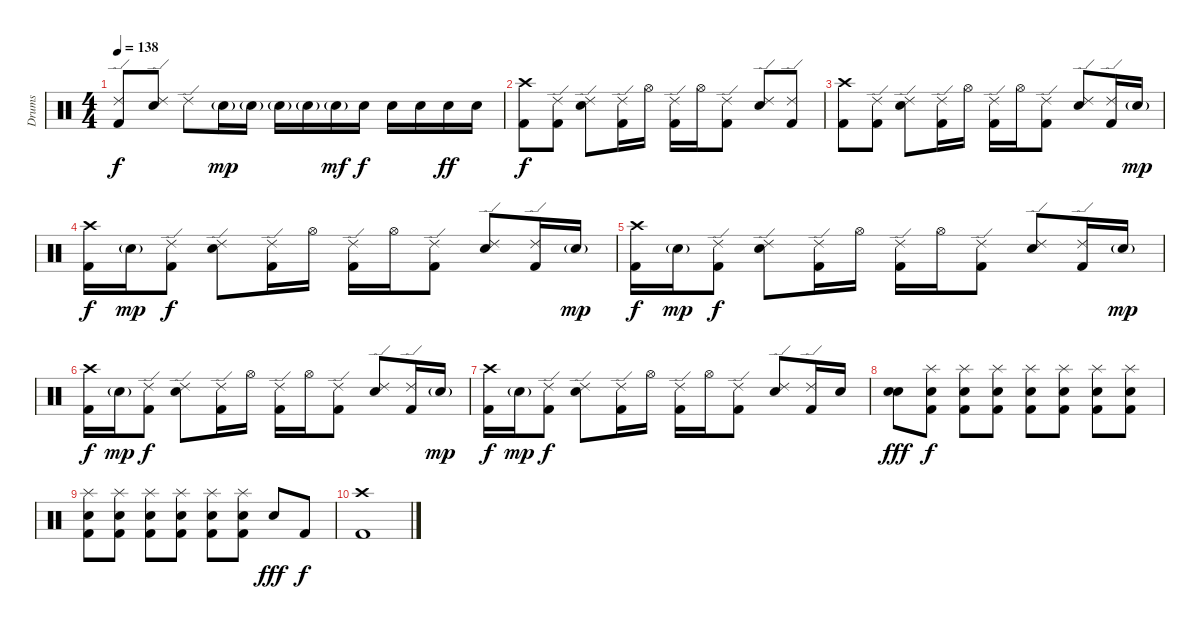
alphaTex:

\track ("Drums" "Drums") {instrument percussion}
\staff {score}
\articulation defaults
\ts (4 4)
\tempo 138
\clef neutral
\ks c
("Ride (edge) 2" "Kick (hit) 2").8{dy f} ("Ride (edge) 2" "Snare (hit) 2").8 "Ride (edge) 2".8 "Snare (hit) 2"{g}.16{dy mp} "Snare (hit) 2"{g}.16 "Snare (hit) 2"{g}.16 "Snare (hit) 2"{g}.16 "Snare (hit) 2"{g}.16{dy mf} "Snare (hit) 2".16{dy f} "Snare (hit) 2".16 "Snare (hit) 2".16 "Snare (hit) 2".16{dy ff} "Snare (hit) 2".16 |
("Crash high (hit)" "Kick (hit) 2").8{dy f} ("Ride (edge) 2" "Kick (hit) 2").8 ("Ride (edge) 2" "Snare (hit) 2").8 ("Ride (edge) 2" "Kick (hit) 2").16 "Hi-Hat (open)".16 ("Ride (edge) 2" "Kick (hit) 2").16 "Hi-Hat (open)".16 ("Ride (edge) 2" "Kick (hit) 2").8 ("Ride (edge) 2" "Snare (hit) 2").8 ("Ride (edge) 2" "Kick (hit) 2").8 |
("Crash high (hit)" "Kick (hit) 2").8 ("Ride (edge) 2" "Kick (hit) 2").8 ("Ride (edge) 2" "Snare (hit) 2").8 ("Ride (edge) 2" "Kick (hit) 2").16 "Hi-Hat (open)".16 ("Ride (edge) 2" "Kick (hit) 2").16 "Hi-Hat (open)".16 ("Ride (edge) 2" "Kick (hit) 2").8 ("Ride (edge) 2" "Snare (hit) 2").8 ("Ride (edge) 2" "Kick (hit) 2").16 "Snare (hit) 2"{g}.16{dy mp} |
("Crash high (hit)" "Kick (hit) 2").16{dy f} "Snare (hit) 2"{g}.16{dy mp} ("Ride (edge) 2" "Kick (hit) 2").8{dy f} ("Ride (edge) 2" "Snare (hit) 2").8 ("Ride (edge) 2" "Kick (hit) 2").16 "Hi-Hat (open)".16 ("Ride (edge) 2" "Kick (hit) 2").16 "Hi-Hat (open)".16 ("Ride (edge) 2" "Kick (hit) 2").8 ("Ride (edge) 2" "Snare (hit) 2").8 ("Ride (edge) 2" "Kick (hit) 2").16 "Snare (hit) 2"{g}.16{dy mp} |
("Crash high (hit)" "Kick (hit) 2").16{dy f} "Snare (hit) 2"{g}.16{dy mp} ("Ride (edge) 2" "Kick (hit) 2").8{dy f} ("Ride (edge) 2" "Snare (hit) 2").8 ("Ride (edge) 2" "Kick (hit) 2").16 "Hi-Hat (open)".16 ("Ride (edge) 2" "Kick (hit) 2").16 "Hi-Hat (open)".16 ("Ride (edge) 2" "Kick (hit) 2").8 ("Ride (edge) 2" "Snare (hit) 2").8 ("Ride (edge) 2" "Kick (hit) 2").16 "Snare (hit) 2"{g}.16{dy mp} |
("Crash high (hit)" "Kick (hit) 2").16{dy f} "Snare (hit) 2"{g}.16{dy mp} ("Ride (edge) 2" "Kick (hit) 2").8{dy f} ("Ride (edge) 2" "Snare (hit) 2").8 ("Ride (edge) 2" "Kick (hit) 2").16 "Hi-Hat (open)".16 ("Ride (edge) 2" "Kick (hit) 2").16 "Hi-Hat (open)".16 ("Ride (edge) 2" "Kick (hit) 2").8 ("Ride (edge) 2" "Snare (hit) 2").8 ("Ride (edge) 2" "Kick (hit) 2").16 "Snare (hit) 2"{g}.16{dy mp} |
("Crash high (hit)" "Kick (hit) 2").16{dy f} "Snare (hit) 2"{g}.16{dy mp} ("Ride (edge) 2" "Kick (hit) 2").8{dy f} ("Ride (edge) 2" "Snare (hit) 2").8 ("Ride (edge) 2" "Kick (hit) 2").16 "Hi-Hat (open)".16 ("Ride (edge) 2" "Kick (hit) 2").16 "Hi-Hat (open)".16 ("Ride (edge) 2" "Kick (hit) 2").8 ("Ride (edge) 2" "Snare (hit) 2").8 ("Ride (edge) 2" "Kick (hit) 2").16 "Snare (hit) 2".16 |
("Snare (hit) 2" "Snare (hit) 2").8{dy fff volume 8} ("Snare (hit) 2" "Splash (hit)" "Kick (hit) 2").8{dy f volume 14} ("Snare (hit) 2" "Splash (hit)" "Kick (hit) 2").8 ("Snare (hit) 2" "Splash (hit)" "Kick (hit) 2").8 ("Snare (hit) 2" "Splash (hit)" "Kick (hit) 2").8 ("Snare (hit) 2" "Splash (hit)" "Kick (hit) 2").8 ("Snare (hit) 2" "Splash (hit)" "Kick (hit) 2").8 ("Snare (hit) 2" "Splash (hit)" "Kick (hit) 2").8 |
("Snare (hit) 2" "Splash (hit)" "Kick (hit) 2").8 ("Snare (hit) 2" "Splash (hit)" "Kick (hit) 2").8 ("Snare (hit) 2" "Splash (hit)" "Kick (hit) 2").8 ("Snare (hit) 2" "Splash (hit)" "Kick (hit) 2").8 ("Snare (hit) 2" "Splash (hit)" "Kick (hit) 2").8 ("Snare (hit) 2" "Splash (hit)" "Kick (hit) 2").8 "Snare (hit) 2".8{dy fff} "Kick (hit) 2".8{dy f} |
("Crash high (hit)" "Kick (hit) 2").1
